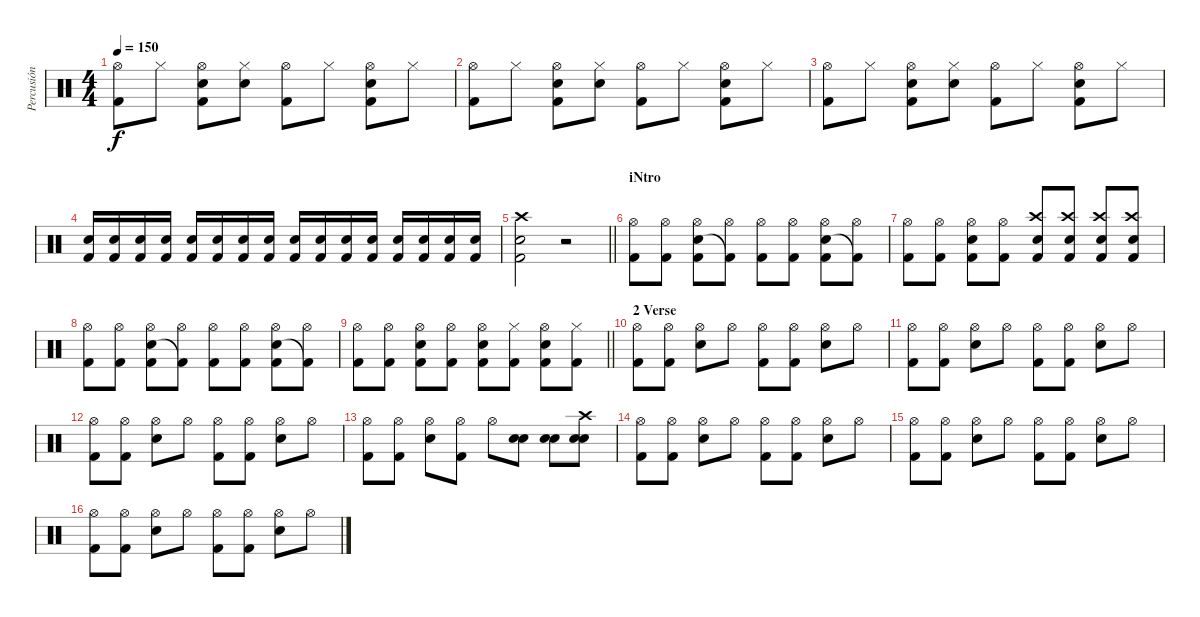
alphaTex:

\track ("Percusión" "Percusión") {instrument percussion}
\staff {score}
\articulation defaults
\ts (4 4)
\tempo 150
\clef neutral
\ks c
("Hi-Hat (open)" "Kick (hit) 2").8{dy f} "Hi-Hat (closed)".8 ("Hi-Hat (open)" "Hand Clap (hit)" "Kick (hit) 2").8 ("Hi-Hat (closed)" "Hand Clap (hit)").8 ("Hi-Hat (open)" "Kick (hit) 2").8 "Hi-Hat (closed)".8 ("Hi-Hat (open)" "Hand Clap (hit)" "Kick (hit) 2").8 "Hi-Hat (closed)".8 |
("Hi-Hat (open)" "Kick (hit) 2").8 "Hi-Hat (closed)".8 ("Hi-Hat (open)" "Hand Clap (hit)" "Kick (hit) 2").8 ("Hi-Hat (closed)" "Hand Clap (hit)").8 ("Hi-Hat (open)" "Kick (hit) 2").8 "Hi-Hat (closed)".8 ("Hi-Hat (open)" "Hand Clap (hit)" "Kick (hit) 2").8 "Hi-Hat (closed)".8 |
("Hi-Hat (open)" "Kick (hit) 2").8 "Hi-Hat (closed)".8 ("Hi-Hat (open)" "Hand Clap (hit)" "Kick (hit) 2").8 ("Hi-Hat (closed)" "Hand Clap (hit)").8 ("Hi-Hat (open)" "Kick (hit) 2").8 "Hi-Hat (closed)".8 ("Hi-Hat (open)" "Hand Clap (hit)" "Kick (hit) 2").8 "Hi-Hat (closed)".8 |
("Electric Snare (hit)" "Kick (hit) 2").16 ("Electric Snare (hit)" "Kick (hit) 2").16 ("Electric Snare (hit)" "Kick (hit) 2").16 ("Electric Snare (hit)" "Kick (hit) 2").16 ("Electric Snare (hit)" "Kick (hit) 2").16 ("Electric Snare (hit)" "Kick (hit) 2").16 ("Electric Snare (hit)" "Kick (hit) 2").16 ("Electric Snare (hit)" "Kick (hit) 2").16 ("Electric Snare (hit)" "Kick (hit) 2").16 ("Electric Snare (hit)" "Kick (hit) 2").16 ("Electric Snare (hit)" "Kick (hit) 2").16 ("Electric Snare (hit)" "Kick (hit) 2").16 ("Electric Snare (hit)" "Kick (hit) 2").16 ("Electric Snare (hit)" "Kick (hit) 2").16 ("Electric Snare (hit)" "Kick (hit) 2").16 ("Electric Snare (hit)" "Kick (hit) 2").16 |
\barLineRight lightlight
("Crash high (hit)" "Electric Snare (hit)" "Kick (hit) 2").2 r.2 |
\section ("" "iNtro")
("Hi-Hat (open)" "Kick (hit) 2").8 ("Hi-Hat (open)" "Kick (hit) 2").8 ("Hi-Hat (open)" "Snare (hit) 2" "Kick (hit) 2").8 ("Hi-Hat (open)" "Kick (hit) 2"{t}).8 ("Hi-Hat (open)" "Kick (hit) 2").8 ("Hi-Hat (open)" "Kick (hit) 2").8 ("Hi-Hat (open)" "Snare (hit) 2" "Kick (hit) 2").8 ("Hi-Hat (open)" "Kick (hit) 2"{t}).8 |
("Hi-Hat (open)" "Kick (hit) 2").8 ("Hi-Hat (open)" "Kick (hit) 2").8 ("Hi-Hat (open)" "Snare (hit) 2" "Kick (hit) 2").8 ("Hi-Hat (open)" "Kick (hit) 2").8 ("Crash high (hit)" "Snare (hit) 2" "Kick (hit) 2").8 ("Crash high (hit)" "Snare (hit) 2" "Kick (hit) 2").8 ("Crash high (hit)" "Snare (hit) 2" "Kick (hit) 2").8 ("Crash high (hit)" "Snare (hit) 2" "Kick (hit) 2").8 |
("Hi-Hat (open)" "Kick (hit) 2").8 ("Hi-Hat (open)" "Kick (hit) 2").8 ("Hi-Hat (open)" "Snare (hit) 2" "Kick (hit) 2").8 ("Hi-Hat (open)" "Kick (hit) 2"{t}).8 ("Hi-Hat (open)" "Kick (hit) 2").8 ("Hi-Hat (open)" "Kick (hit) 2").8 ("Hi-Hat (open)" "Snare (hit) 2" "Kick (hit) 2").8 ("Hi-Hat (open)" "Kick (hit) 2"{t}).8 |
\barLineRight lightlight
("Hi-Hat (open)" "Kick (hit) 2").8 ("Hi-Hat (open)" "Kick (hit) 2").8 ("Hi-Hat (open)" "Snare (hit) 2" "Kick (hit) 2").8 ("Hi-Hat (open)" "Kick (hit) 2").8 ("Hi-Hat (open)" "Snare (hit) 2" "Kick (hit) 2").8 ("Hi-Hat (closed)" "Kick (hit) 2").8 ("Hi-Hat (open)" "Snare (hit) 2" "Kick (hit) 2").8 ("Hi-Hat (closed)" "Kick (hit) 2").8 |
\section ("" "2 Verse")
("Hi-Hat (open)" "Kick (hit) 2").8 ("Hi-Hat (open)" "Kick (hit) 2").8 ("Hi-Hat (open)" "Snare (hit) 2").8 "Hi-Hat (open)".8 ("Hi-Hat (open)" "Kick (hit) 2").8 ("Hi-Hat (open)" "Kick (hit) 2").8 ("Hi-Hat (open)" "Snare (hit) 2").8 "Hi-Hat (open)".8 |
("Hi-Hat (open)" "Kick (hit) 2").8 ("Hi-Hat (open)" "Kick (hit) 2").8 ("Hi-Hat (open)" "Snare (hit) 2").8 "Hi-Hat (open)".8 ("Hi-Hat (open)" "Kick (hit) 2").8 ("Hi-Hat (open)" "Kick (hit) 2").8 ("Hi-Hat (open)" "Snare (hit) 2").8 "Hi-Hat (open)".8 |
("Hi-Hat (open)" "Kick (hit) 2").8 ("Hi-Hat (open)" "Kick (hit) 2").8 ("Hi-Hat (open)" "Snare (hit) 2").8 "Hi-Hat (open)".8 ("Hi-Hat (open)" "Kick (hit) 2").8 ("Hi-Hat (open)" "Kick (hit) 2").8 ("Hi-Hat (open)" "Snare (hit) 2").8 "Hi-Hat (open)".8 |
("Hi-Hat (open)" "Kick (hit) 2").8 ("Hi-Hat (open)" "Kick (hit) 2").8 ("Hi-Hat (open)" "Snare (hit) 2").8 ("Hi-Hat (open)" "Kick (hit) 2").8 "Hi-Hat (open)".8 ("Electric Snare (hit)" "Snare (hit) 2").8 ("Electric Snare (hit)" "Snare (hit) 2").8 ("Crash high (hit)" "Electric Snare (hit)" "Snare (hit) 2").8 |
("Hi-Hat (open)" "Kick (hit) 2").8 ("Hi-Hat (open)" "Kick (hit) 2").8 ("Hi-Hat (open)" "Snare (hit) 2").8 "Hi-Hat (open)".8 ("Hi-Hat (open)" "Kick (hit) 2").8 ("Hi-Hat (open)" "Kick (hit) 2").8 ("Hi-Hat (open)" "Snare (hit) 2").8 "Hi-Hat (open)".8 |
("Hi-Hat (open)" "Kick (hit) 2").8 ("Hi-Hat (open)" "Kick (hit) 2").8 ("Hi-Hat (open)" "Snare (hit) 2").8 "Hi-Hat (open)".8 ("Hi-Hat (open)" "Kick (hit) 2").8 ("Hi-Hat (open)" "Kick (hit) 2").8 ("Hi-Hat (open)" "Snare (hit) 2").8 "Hi-Hat (open)".8 |
("Hi-Hat (open)" "Kick (hit) 2").8 ("Hi-Hat (open)" "Kick (hit) 2").8 ("Hi-Hat (open)" "Snare (hit) 2").8 "Hi-Hat (open)".8 ("Hi-Hat (open)" "Kick (hit) 2").8 ("Hi-Hat (open)" "Kick (hit) 2").8 ("Hi-Hat (open)" "Snare (hit) 2").8 "Hi-Hat (open)".8
